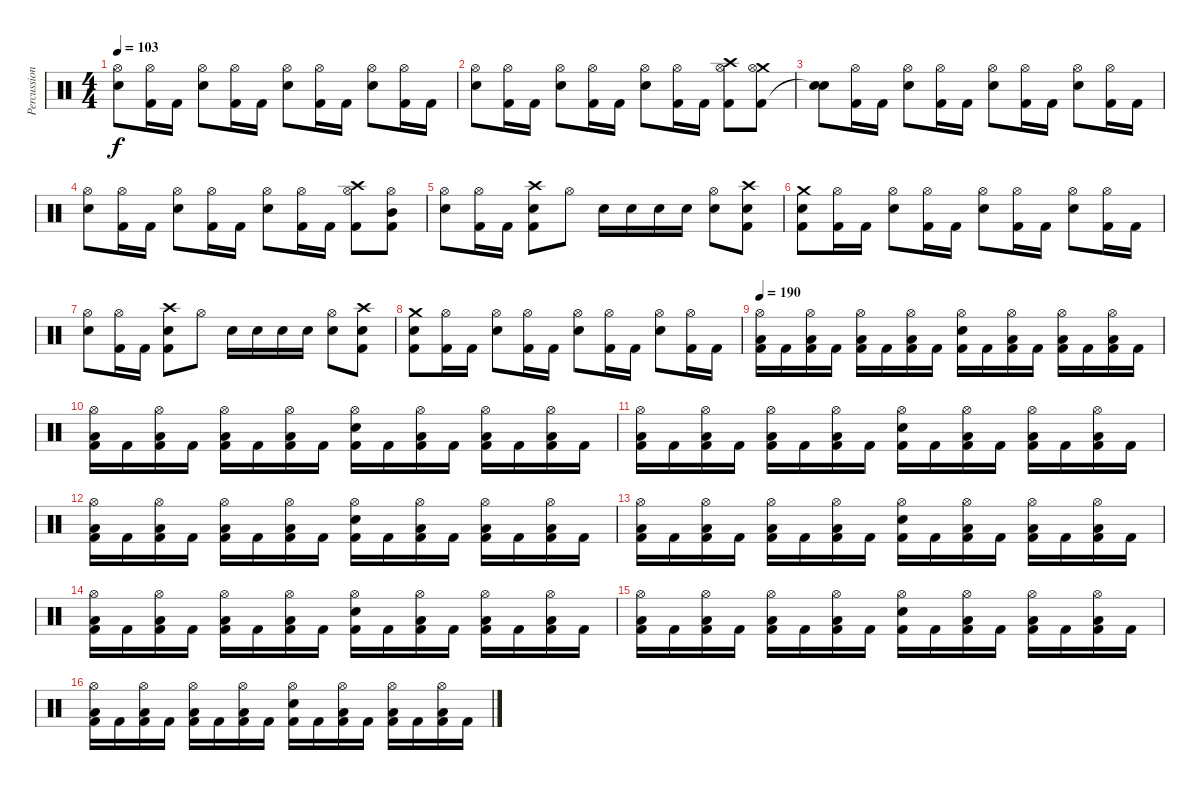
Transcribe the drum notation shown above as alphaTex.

\track ("Percussions" "Percussion") {instrument percussion}
\staff {score}
\articulation defaults
\ts (4 4)
\tempo 103
\clef neutral
\ks c
("Snare (hit) 2" "Hi-Hat (open)").8{dy f} ("Kick (hit) 2" "Hi-Hat (open)").16 "Kick (hit) 2".16 ("Snare (hit) 2" "Hi-Hat (open)").8 ("Kick (hit) 2" "Hi-Hat (open)").16 "Kick (hit) 2".16 ("Snare (hit) 2" "Hi-Hat (open)").8 ("Kick (hit) 2" "Hi-Hat (open)").16 "Kick (hit) 2".16 ("Snare (hit) 2" "Hi-Hat (open)").8 ("Kick (hit) 2" "Hi-Hat (open)").16 "Kick (hit) 2".16 |
("Snare (hit) 2" "Hi-Hat (open)").8 ("Kick (hit) 2" "Hi-Hat (open)").16 "Kick (hit) 2".16 ("Snare (hit) 2" "Hi-Hat (open)").8 ("Kick (hit) 2" "Hi-Hat (open)").16 "Kick (hit) 2".16 ("Snare (hit) 2" "Hi-Hat (open)").8 ("Kick (hit) 2" "Hi-Hat (open)").16 "Kick (hit) 2".16 ("Kick (hit) 2" "Crash high (hit)" "Hi-Hat (open)").8 ("Kick (hit) 2" "Crash medium (hit)" "Hi-Hat (open)").8 |
("Snare (hit) 2"{t} "Snare (hit) 2").8 ("Kick (hit) 2" "Hi-Hat (open)").16 "Kick (hit) 2".16 ("Snare (hit) 2" "Hi-Hat (open)").8 ("Kick (hit) 2" "Hi-Hat (open)").16 "Kick (hit) 2".16 ("Snare (hit) 2" "Hi-Hat (open)").8 ("Kick (hit) 2" "Hi-Hat (open)").16 "Kick (hit) 2".16 ("Snare (hit) 2" "Hi-Hat (open)").8 ("Kick (hit) 2" "Hi-Hat (open)").16 "Kick (hit) 2".16 |
("Snare (hit) 2" "Hi-Hat (open)").8 ("Kick (hit) 2" "Hi-Hat (open)").16 "Kick (hit) 2".16 ("Snare (hit) 2" "Hi-Hat (open)").8 ("Kick (hit) 2" "Hi-Hat (open)").16 "Kick (hit) 2".16 ("Snare (hit) 2" "Hi-Hat (open)").8 ("Kick (hit) 2" "Hi-Hat (open)").16 "Kick (hit) 2".16 ("Kick (hit) 2" "Crash high (hit)" "Hi-Hat (open)").8 ("Kick (hit) 2" "Mid Tom (hit)" "Hi-Hat (open)").8 |
("Snare (hit) 2" "Hi-Hat (open)").8 ("Kick (hit) 2" "Hi-Hat (open)").16 "Kick (hit) 2".16 ("Kick (hit) 2" "Snare (hit) 2" "Crash high (hit)").8 "Hi-Hat (open)".8 "Snare (hit) 2".16 "Snare (hit) 2".16 "Snare (hit) 2".16 "Snare (hit) 2".16 ("Snare (hit) 2" "Hi-Hat (open)").8 ("Kick (hit) 2" "Snare (hit) 2" "Crash high (hit)").8 |
("Kick (hit) 2" "Snare (hit) 2" "Crash medium (hit)").8 ("Kick (hit) 2" "Hi-Hat (open)").16 "Kick (hit) 2".16 ("Snare (hit) 2" "Hi-Hat (open)").8 ("Kick (hit) 2" "Hi-Hat (open)").16 "Kick (hit) 2".16 ("Snare (hit) 2" "Hi-Hat (open)").8 ("Kick (hit) 2" "Hi-Hat (open)").16 "Kick (hit) 2".16 ("Snare (hit) 2" "Hi-Hat (open)").8 ("Kick (hit) 2" "Hi-Hat (open)").16 "Kick (hit) 2".16 |
("Snare (hit) 2" "Hi-Hat (open)").8 ("Kick (hit) 2" "Hi-Hat (open)").16 "Kick (hit) 2".16 ("Kick (hit) 2" "Snare (hit) 2" "Crash high (hit)").8 "Hi-Hat (open)".8 "Snare (hit) 2".16 "Snare (hit) 2".16 "Snare (hit) 2".16 "Snare (hit) 2".16 ("Snare (hit) 2" "Hi-Hat (open)").8 ("Kick (hit) 2" "Snare (hit) 2" "Crash high (hit)").8 |
("Kick (hit) 2" "Snare (hit) 2" "Crash medium (hit)").8 ("Kick (hit) 2" "Hi-Hat (open)").16 "Kick (hit) 2".16 ("Snare (hit) 2" "Hi-Hat (open)").8 ("Kick (hit) 2" "Hi-Hat (open)").16 "Kick (hit) 2".16 ("Snare (hit) 2" "Hi-Hat (open)").8 ("Kick (hit) 2" "Hi-Hat (open)").16 "Kick (hit) 2".16 ("Snare (hit) 2" "Hi-Hat (open)").8 ("Kick (hit) 2" "Hi-Hat (open)").16 "Kick (hit) 2".16 |
\tempo 190
("Kick (hit) 2" "Low Floor Tom (hit)" "Hi-Hat (open)").16 "Kick (hit) 2".16 ("Kick (hit) 2" "Low Floor Tom (hit)" "Hi-Hat (open)").16 "Kick (hit) 2".16 ("Kick (hit) 2" "Low Floor Tom (hit)" "Hi-Hat (open)").16 "Kick (hit) 2".16 ("Kick (hit) 2" "Low Floor Tom (hit)" "Hi-Hat (open)").16 "Kick (hit) 2".16 ("Kick (hit) 2" "Snare (hit) 2" "Hi-Hat (open)").16 "Kick (hit) 2".16 ("Kick (hit) 2" "Low Floor Tom (hit)" "Hi-Hat (open)").16 "Kick (hit) 2".16 ("Kick (hit) 2" "Low Floor Tom (hit)" "Hi-Hat (open)").16 "Kick (hit) 2".16 ("Kick (hit) 2" "Low Floor Tom (hit)" "Hi-Hat (open)").16 "Kick (hit) 2".16 |
("Kick (hit) 2" "Low Floor Tom (hit)" "Hi-Hat (open)").16 "Kick (hit) 2".16 ("Kick (hit) 2" "Low Floor Tom (hit)" "Hi-Hat (open)").16 "Kick (hit) 2".16 ("Kick (hit) 2" "Low Floor Tom (hit)" "Hi-Hat (open)").16 "Kick (hit) 2".16 ("Kick (hit) 2" "Low Floor Tom (hit)" "Hi-Hat (open)").16 "Kick (hit) 2".16 ("Kick (hit) 2" "Snare (hit) 2" "Hi-Hat (open)").16 "Kick (hit) 2".16 ("Kick (hit) 2" "Low Floor Tom (hit)" "Hi-Hat (open)").16 "Kick (hit) 2".16 ("Kick (hit) 2" "Low Floor Tom (hit)" "Hi-Hat (open)").16 "Kick (hit) 2".16 ("Kick (hit) 2" "Low Floor Tom (hit)" "Hi-Hat (open)").16 "Kick (hit) 2".16 |
("Kick (hit) 2" "Low Floor Tom (hit)" "Hi-Hat (open)").16 "Kick (hit) 2".16 ("Kick (hit) 2" "Low Floor Tom (hit)" "Hi-Hat (open)").16 "Kick (hit) 2".16 ("Kick (hit) 2" "Low Floor Tom (hit)" "Hi-Hat (open)").16 "Kick (hit) 2".16 ("Kick (hit) 2" "Low Floor Tom (hit)" "Hi-Hat (open)").16 "Kick (hit) 2".16 ("Kick (hit) 2" "Snare (hit) 2" "Hi-Hat (open)").16 "Kick (hit) 2".16 ("Kick (hit) 2" "Low Floor Tom (hit)" "Hi-Hat (open)").16 "Kick (hit) 2".16 ("Kick (hit) 2" "Low Floor Tom (hit)" "Hi-Hat (open)").16 "Kick (hit) 2".16 ("Kick (hit) 2" "Low Floor Tom (hit)" "Hi-Hat (open)").16 "Kick (hit) 2".16 |
("Kick (hit) 2" "Low Floor Tom (hit)" "Hi-Hat (open)").16 "Kick (hit) 2".16 ("Kick (hit) 2" "Low Floor Tom (hit)" "Hi-Hat (open)").16 "Kick (hit) 2".16 ("Kick (hit) 2" "Low Floor Tom (hit)" "Hi-Hat (open)").16 "Kick (hit) 2".16 ("Kick (hit) 2" "Low Floor Tom (hit)" "Hi-Hat (open)").16 "Kick (hit) 2".16 ("Kick (hit) 2" "Snare (hit) 2" "Hi-Hat (open)").16 "Kick (hit) 2".16 ("Kick (hit) 2" "Low Floor Tom (hit)" "Hi-Hat (open)").16 "Kick (hit) 2".16 ("Kick (hit) 2" "Low Floor Tom (hit)" "Hi-Hat (open)").16 "Kick (hit) 2".16 ("Kick (hit) 2" "Low Floor Tom (hit)" "Hi-Hat (open)").16 "Kick (hit) 2".16 |
("Kick (hit) 2" "Low Floor Tom (hit)" "Hi-Hat (open)").16 "Kick (hit) 2".16 ("Kick (hit) 2" "Low Floor Tom (hit)" "Hi-Hat (open)").16 "Kick (hit) 2".16 ("Kick (hit) 2" "Low Floor Tom (hit)" "Hi-Hat (open)").16 "Kick (hit) 2".16 ("Kick (hit) 2" "Low Floor Tom (hit)" "Hi-Hat (open)").16 "Kick (hit) 2".16 ("Kick (hit) 2" "Snare (hit) 2" "Hi-Hat (open)").16 "Kick (hit) 2".16 ("Kick (hit) 2" "Low Floor Tom (hit)" "Hi-Hat (open)").16 "Kick (hit) 2".16 ("Kick (hit) 2" "Low Floor Tom (hit)" "Hi-Hat (open)").16 "Kick (hit) 2".16 ("Kick (hit) 2" "Low Floor Tom (hit)" "Hi-Hat (open)").16 "Kick (hit) 2".16 |
("Kick (hit) 2" "Low Floor Tom (hit)" "Hi-Hat (open)").16 "Kick (hit) 2".16 ("Kick (hit) 2" "Low Floor Tom (hit)" "Hi-Hat (open)").16 "Kick (hit) 2".16 ("Kick (hit) 2" "Low Floor Tom (hit)" "Hi-Hat (open)").16 "Kick (hit) 2".16 ("Kick (hit) 2" "Low Floor Tom (hit)" "Hi-Hat (open)").16 "Kick (hit) 2".16 ("Kick (hit) 2" "Snare (hit) 2" "Hi-Hat (open)").16 "Kick (hit) 2".16 ("Kick (hit) 2" "Low Floor Tom (hit)" "Hi-Hat (open)").16 "Kick (hit) 2".16 ("Kick (hit) 2" "Low Floor Tom (hit)" "Hi-Hat (open)").16 "Kick (hit) 2".16 ("Kick (hit) 2" "Low Floor Tom (hit)" "Hi-Hat (open)").16 "Kick (hit) 2".16 |
("Kick (hit) 2" "Low Floor Tom (hit)" "Hi-Hat (open)").16 "Kick (hit) 2".16 ("Kick (hit) 2" "Low Floor Tom (hit)" "Hi-Hat (open)").16 "Kick (hit) 2".16 ("Kick (hit) 2" "Low Floor Tom (hit)" "Hi-Hat (open)").16 "Kick (hit) 2".16 ("Kick (hit) 2" "Low Floor Tom (hit)" "Hi-Hat (open)").16 "Kick (hit) 2".16 ("Kick (hit) 2" "Snare (hit) 2" "Hi-Hat (open)").16 "Kick (hit) 2".16 ("Kick (hit) 2" "Low Floor Tom (hit)" "Hi-Hat (open)").16 "Kick (hit) 2".16 ("Kick (hit) 2" "Low Floor Tom (hit)" "Hi-Hat (open)").16 "Kick (hit) 2".16 ("Kick (hit) 2" "Low Floor Tom (hit)" "Hi-Hat (open)").16 "Kick (hit) 2".16 |
("Kick (hit) 2" "Low Floor Tom (hit)" "Hi-Hat (open)").16 "Kick (hit) 2".16 ("Kick (hit) 2" "Low Floor Tom (hit)" "Hi-Hat (open)").16 "Kick (hit) 2".16 ("Kick (hit) 2" "Low Floor Tom (hit)" "Hi-Hat (open)").16 "Kick (hit) 2".16 ("Kick (hit) 2" "Low Floor Tom (hit)" "Hi-Hat (open)").16 "Kick (hit) 2".16 ("Kick (hit) 2" "Snare (hit) 2" "Hi-Hat (open)").16 "Kick (hit) 2".16 ("Kick (hit) 2" "Low Floor Tom (hit)" "Hi-Hat (open)").16 "Kick (hit) 2".16 ("Kick (hit) 2" "Low Floor Tom (hit)" "Hi-Hat (open)").16 "Kick (hit) 2".16 ("Kick (hit) 2" "Low Floor Tom (hit)" "Hi-Hat (open)").16 "Kick (hit) 2".16
